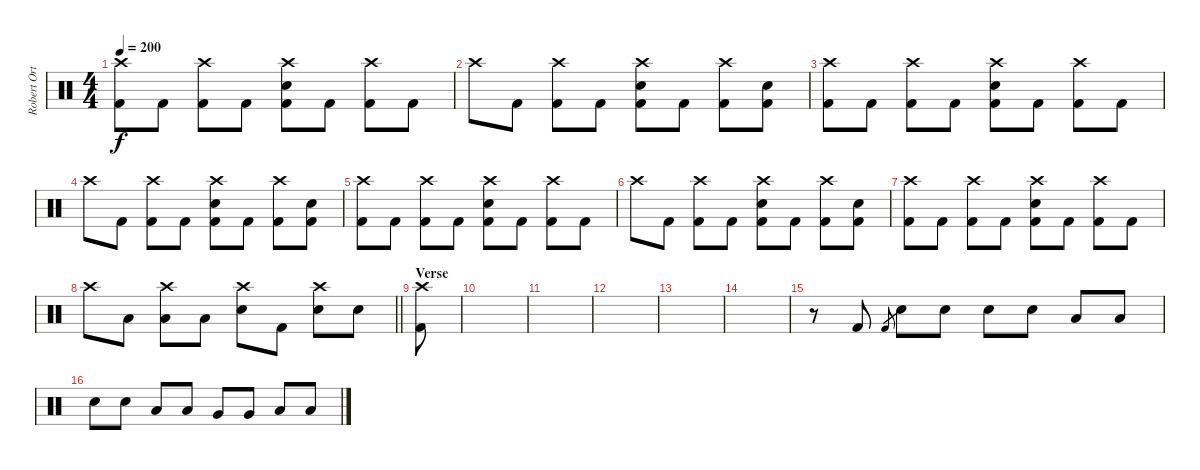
\track ("Robert Ortiz" "Robert Ort") {instrument percussion}
\staff {score}
\articulation defaults
\ts (4 4)
\tempo 200
\clef neutral
\ks c
("Crash high (hit)" "Kick (hit) 2").8{dy f volume 12} "Kick (hit) 2".8 ("Crash high (hit)" "Kick (hit) 2").8 "Kick (hit) 2".8 ("Crash high (hit)" "Electric Snare (hit)" "Kick (hit) 2").8 "Kick (hit) 2".8 ("Crash high (hit)" "Kick (hit) 2").8 "Kick (hit) 2".8 |
"Crash high (hit)".8 "Kick (hit) 2".8 ("Crash high (hit)" "Kick (hit) 2").8 "Kick (hit) 2".8 ("Crash high (hit)" "Electric Snare (hit)" "Kick (hit) 2").8 "Kick (hit) 2".8 ("Crash high (hit)" "Kick (hit) 2").8 ("Electric Snare (hit)" "Kick (hit) 2").8 |
("Crash high (hit)" "Kick (hit) 2").8 "Kick (hit) 2".8 ("Crash high (hit)" "Kick (hit) 2").8 "Kick (hit) 2".8 ("Crash high (hit)" "Electric Snare (hit)" "Kick (hit) 2").8 "Kick (hit) 2".8 ("Crash high (hit)" "Kick (hit) 2").8 "Kick (hit) 2".8 |
"Crash high (hit)".8 "Kick (hit) 2".8 ("Crash high (hit)" "Kick (hit) 2").8 "Kick (hit) 2".8 ("Crash high (hit)" "Electric Snare (hit)" "Kick (hit) 2").8 "Kick (hit) 2".8 ("Crash high (hit)" "Kick (hit) 2").8 ("Electric Snare (hit)" "Kick (hit) 2").8 |
("Crash high (hit)" "Kick (hit) 2").8 "Kick (hit) 2".8 ("Crash high (hit)" "Kick (hit) 2").8 "Kick (hit) 2".8 ("Crash high (hit)" "Electric Snare (hit)" "Kick (hit) 2").8 "Kick (hit) 2".8 ("Crash high (hit)" "Kick (hit) 2").8 "Kick (hit) 2".8 |
"Crash high (hit)".8 "Kick (hit) 2".8 ("Crash high (hit)" "Kick (hit) 2").8 "Kick (hit) 2".8 ("Crash high (hit)" "Electric Snare (hit)" "Kick (hit) 2").8 "Kick (hit) 2".8 ("Crash high (hit)" "Kick (hit) 2").8 ("Electric Snare (hit)" "Kick (hit) 2").8 |
("Crash high (hit)" "Kick (hit) 2").8 "Kick (hit) 2".8 ("Crash high (hit)" "Kick (hit) 2").8 "Kick (hit) 2".8 ("Crash high (hit)" "Electric Snare (hit)" "Kick (hit) 2").8 "Kick (hit) 2".8 ("Crash high (hit)" "Kick (hit) 2").8 "Kick (hit) 2".8 |
\barLineRight lightlight "Crash high (hit)".8 "Low Floor Tom (hit)".8
("Crash high (hit)" "Low Floor Tom (hit)").8 "Low Floor Tom (hit)".8 ("Crash high (hit)" "Electric Snare (hit)").8 "Kick (hit) 2".8 ("Crash high (hit)" "Electric Snare (hit)").8 "Electric Snare (hit)".8 |
\section ("" "Verse")
("Crash high (hit)" "Kick (hit) 2").8 |
|
|
|
|
|
r.8 "Kick (hit) 2".8 "Kick (hit) 2".8{gr} "Electric Snare (hit)".8 "Electric Snare (hit)".8 "Electric Snare (hit)".8 "Electric Snare (hit)".8 "Low Tom (hit)".8 "Low Tom (hit)".8 |
"Electric Snare (hit)".8 "Electric Snare (hit)".8 "Low Tom (hit)".8 "Low Tom (hit)".8 "Very Low Tom (hit)".8 "Very Low Tom (hit)".8 "Low Floor Tom (hit)".8 "Low Floor Tom (hit)".8
